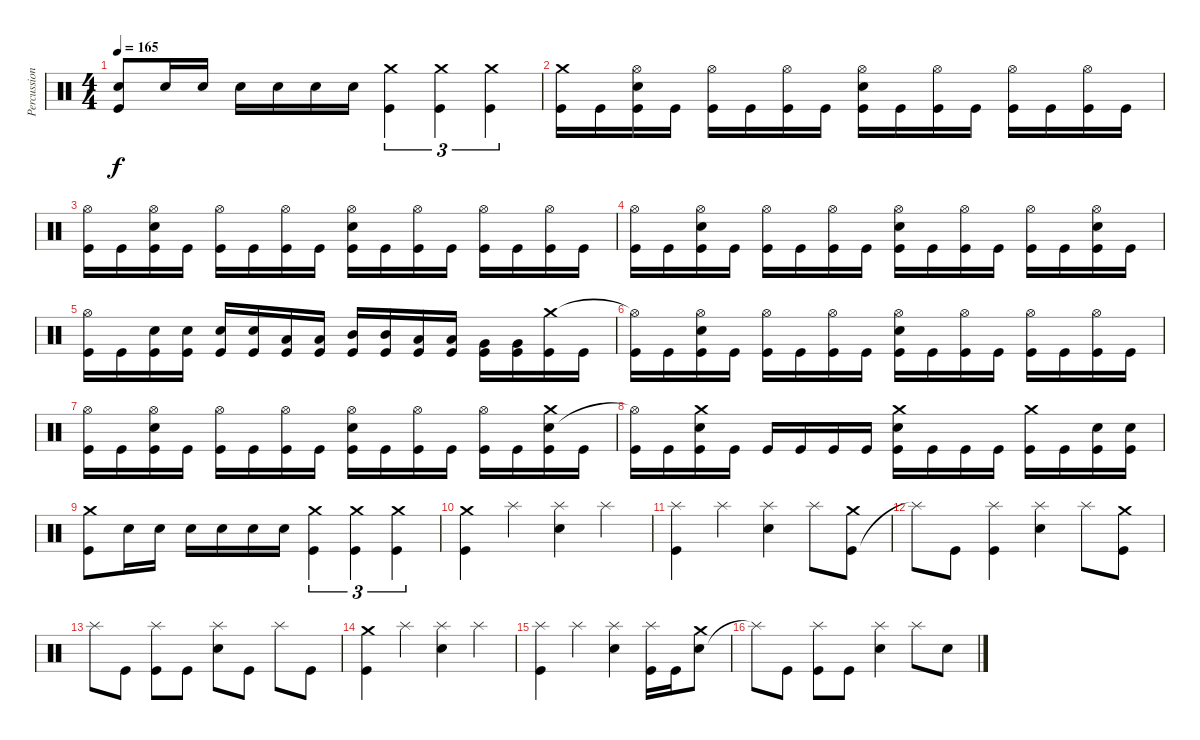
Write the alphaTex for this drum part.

\track ("Percussions" "Percussion") {instrument percussion}
\staff {score}
\articulation defaults
\ts (4 4)
\tempo 165
\clef neutral
\ks c
("Kick (hit)" "Snare (hit)"{t}).8{dy f} "Electric Snare (hit)".16 "Electric Snare (hit)".16 "Electric Snare (hit)".16 "Electric Snare (hit)".16 "Electric Snare (hit)".16 "Electric Snare (hit)".16 ("Kick (hit)" "Crash medium (hit)").4{tu (3 2)} ("Kick (hit)" "Crash medium (hit)").4{tu (3 2)} ("Kick (hit)" "Crash medium (hit)").4{tu (3 2)} |
("Kick (hit)" "Crash medium (hit)").16 "Kick (hit)".16 ("Kick (hit)" "Electric Snare (hit)" "Hi-Hat (open)").16 "Kick (hit)".16 ("Kick (hit)" "Hi-Hat (open)").16 "Kick (hit)".16 ("Kick (hit)" "Hi-Hat (open)").16 "Kick (hit)".16 ("Kick (hit)" "Electric Snare (hit)" "Hi-Hat (open)").16 "Kick (hit)".16 ("Kick (hit)" "Hi-Hat (open)").16 "Kick (hit)".16 ("Kick (hit)" "Hi-Hat (open)").16 "Kick (hit)".16 ("Kick (hit)" "Hi-Hat (open)").16 "Kick (hit)".16 |
("Kick (hit)" "Hi-Hat (open)").16 "Kick (hit)".16 ("Kick (hit)" "Electric Snare (hit)" "Hi-Hat (open)").16 "Kick (hit)".16 ("Kick (hit)" "Hi-Hat (open)").16 "Kick (hit)".16 ("Kick (hit)" "Hi-Hat (open)").16 "Kick (hit)".16 ("Kick (hit)" "Electric Snare (hit)" "Hi-Hat (open)").16 "Kick (hit)".16 ("Kick (hit)" "Hi-Hat (open)").16 "Kick (hit)".16 ("Kick (hit)" "Hi-Hat (open)").16 "Kick (hit)".16 ("Kick (hit)" "Hi-Hat (open)").16 "Kick (hit)".16 |
("Kick (hit)" "Hi-Hat (open)").16 "Kick (hit)".16 ("Kick (hit)" "Electric Snare (hit)" "Hi-Hat (open)").16 "Kick (hit)".16 ("Kick (hit)" "Hi-Hat (open)").16 "Kick (hit)".16 ("Kick (hit)" "Hi-Hat (open)").16 "Kick (hit)".16 ("Kick (hit)" "Electric Snare (hit)" "Hi-Hat (open)").16 "Kick (hit)".16 ("Kick (hit)" "Hi-Hat (open)").16 "Kick (hit)".16 ("Kick (hit)" "Hi-Hat (open)").16 "Kick (hit)".16 ("Kick (hit)" "Electric Snare (hit)" "Hi-Hat (open)").16 "Kick (hit)".16 |
("Kick (hit)" "Hi-Hat (open)").16 "Kick (hit)".16 ("Kick (hit)" "Electric Snare (hit)").16 ("Kick (hit)" "Electric Snare (hit)").16 ("Kick (hit)" "Electric Snare (hit)").16 ("Kick (hit)" "Electric Snare (hit)").16 ("Kick (hit)" "Low Tom (hit)").16 ("Kick (hit)" "Low Tom (hit)").16 ("Kick (hit)" "Mid Tom (hit)").16 ("Kick (hit)" "Mid Tom (hit)").16 ("Kick (hit)" "Low Tom (hit)").16 ("Kick (hit)" "Low Tom (hit)").16 ("Kick (hit)" "Very Low Tom (hit)").16 ("Kick (hit)" "Very Low Tom (hit)").16 ("Kick (hit)" "Crash medium (hit)").16 "Kick (hit)".16 |
("Kick (hit)" "Hi-Hat (open)"{t}).16 "Kick (hit)".16 ("Kick (hit)" "Electric Snare (hit)" "Hi-Hat (open)").16 "Kick (hit)".16 ("Kick (hit)" "Hi-Hat (open)").16 "Kick (hit)".16 ("Kick (hit)" "Hi-Hat (open)").16 "Kick (hit)".16 ("Kick (hit)" "Electric Snare (hit)" "Hi-Hat (open)").16 "Kick (hit)".16 ("Kick (hit)" "Hi-Hat (open)").16 "Kick (hit)".16 ("Kick (hit)" "Hi-Hat (open)").16 "Kick (hit)".16 ("Kick (hit)" "Hi-Hat (open)").16 "Kick (hit)".16 |
("Kick (hit)" "Hi-Hat (open)").16 "Kick (hit)".16 ("Kick (hit)" "Electric Snare (hit)" "Hi-Hat (open)").16 "Kick (hit)".16 ("Kick (hit)" "Hi-Hat (open)").16 "Kick (hit)".16 ("Kick (hit)" "Hi-Hat (open)").16 "Kick (hit)".16 ("Kick (hit)" "Electric Snare (hit)" "Hi-Hat (open)").16 "Kick (hit)".16 ("Kick (hit)" "Hi-Hat (open)").16 "Kick (hit)".16 ("Kick (hit)" "Hi-Hat (open)").16 "Kick (hit)".16 ("Kick (hit)" "Electric Snare (hit)" "Crash medium (hit)").16 "Kick (hit)".16 |
("Kick (hit)" "Hi-Hat (open)"{t}).16 "Kick (hit)".16 ("Kick (hit)" "Electric Snare (hit)" "Crash medium (hit)").16 "Kick (hit)".16 "Kick (hit)".16 "Kick (hit)".16 "Kick (hit)".16 "Kick (hit)".16 ("Kick (hit)" "Electric Snare (hit)" "Crash medium (hit)").16 "Kick (hit)".16 "Kick (hit)".16 "Kick (hit)".16 ("Kick (hit)" "Crash medium (hit)").16 "Kick (hit)".16 ("Kick (hit)" "Electric Snare (hit)").16 ("Kick (hit)" "Electric Snare (hit)").16 |
("Kick (hit)" "Crash medium (hit)").8 "Electric Snare (hit)".16 "Electric Snare (hit)".16 "Electric Snare (hit)".16 "Electric Snare (hit)".16 "Electric Snare (hit)".16 "Electric Snare (hit)".16 ("Kick (hit)" "Crash medium (hit)").4{tu (3 2)} ("Kick (hit)" "Crash medium (hit)").4{tu (3 2)} ("Kick (hit)" "Crash medium (hit)").4{tu (3 2)} |
("Kick (hit)" "Crash medium (hit)").4 "Splash (hit)".4 ("Electric Snare (hit)" "Splash (hit)").4 "Splash (hit)".4 |
("Kick (hit)" "Splash (hit)").4 "Splash (hit)".4 ("Electric Snare (hit)" "Splash (hit)").4 "Splash (hit)".8 ("Kick (hit)" "Crash medium (hit)").8 |
"Splash (hit)"{t}.8 "Kick (hit)".8 ("Kick (hit)" "Splash (hit)").4 ("Electric Snare (hit)" "Splash (hit)").4 "Splash (hit)".8 ("Kick (hit)" "Crash medium (hit)").8 |
"Splash (hit)".8 "Kick (hit)".8 ("Kick (hit)" "Splash (hit)").8 "Kick (hit)".8 ("Electric Snare (hit)" "Splash (hit)").8 "Kick (hit)".8 "Splash (hit)".8 "Kick (hit)".8 |
("Kick (hit)" "Crash medium (hit)").4 "Splash (hit)".4 ("Electric Snare (hit)" "Splash (hit)").4 "Splash (hit)".4 |
("Kick (hit)" "Splash (hit)").4 "Splash (hit)".4 ("Electric Snare (hit)" "Splash (hit)").4 ("Kick (hit)" "Splash (hit)").16 "Kick (hit)".16 ("Electric Snare (hit)" "Crash medium (hit)").8 |
"Splash (hit)"{t}.8 "Kick (hit)".8 ("Kick (hit)" "Splash (hit)").8 "Kick (hit)".8 ("Electric Snare (hit)" "Splash (hit)").4 "Splash (hit)".8 "Electric Snare (hit)".8
